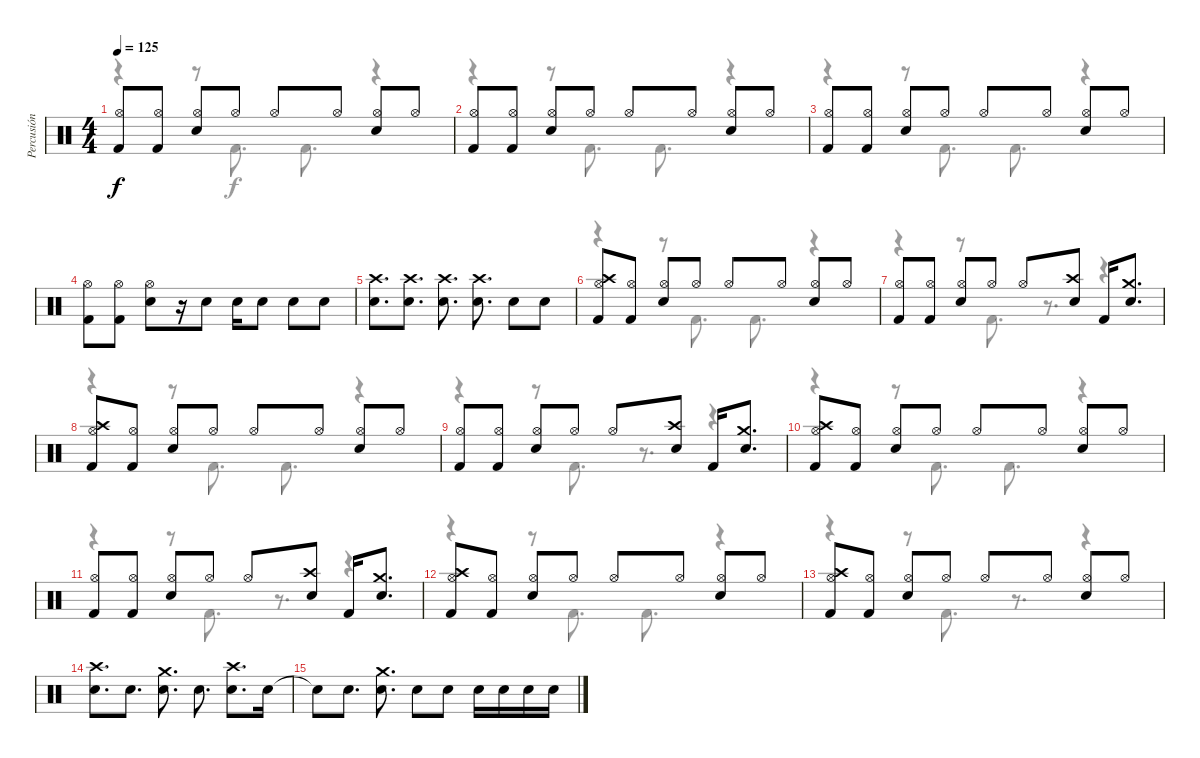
\track ("Percusión" "Percusión") {instrument percussion}
\staff {score}
\articulation defaults
\voice
\ts (4 4)
\tempo 125
\clef neutral
\ks c
("Hi-Hat (open)" "Kick (hit) 2").8{dy f} ("Hi-Hat (open)" "Kick (hit) 2").8 ("Hi-Hat (open)" "Electric Snare (hit)").8 "Hi-Hat (open)".8 "Hi-Hat (open)".8 "Hi-Hat (open)".8 ("Hi-Hat (open)" "Electric Snare (hit)").8 "Hi-Hat (open)".8 |
("Hi-Hat (open)" "Kick (hit) 2").8 ("Hi-Hat (open)" "Kick (hit) 2").8 ("Hi-Hat (open)" "Electric Snare (hit)").8 "Hi-Hat (open)".8 "Hi-Hat (open)".8 "Hi-Hat (open)".8 ("Hi-Hat (open)" "Electric Snare (hit)").8 "Hi-Hat (open)".8 |
("Hi-Hat (open)" "Kick (hit) 2").8 ("Hi-Hat (open)" "Kick (hit) 2").8 ("Hi-Hat (open)" "Electric Snare (hit)").8 "Hi-Hat (open)".8 "Hi-Hat (open)".8 "Hi-Hat (open)".8 ("Hi-Hat (open)" "Electric Snare (hit)").8 "Hi-Hat (open)".8 |
("Hi-Hat (open)" "Kick (hit) 2").8 ("Hi-Hat (open)" "Kick (hit) 2").8 ("Hi-Hat (open)" "Electric Snare (hit)").8 r.16 "Electric Snare (hit)".8 "Electric Snare (hit)".16 "Electric Snare (hit)".8 "Electric Snare (hit)".8 "Electric Snare (hit)".8 |
("Crash high (hit)" "Electric Snare (hit)").8{d} ("Crash high (hit)" "Electric Snare (hit)").8{d} ("Crash high (hit)" "Electric Snare (hit)").8{d} ("Crash high (hit)" "Electric Snare (hit)").8{d} "Electric Snare (hit)".8 "Electric Snare (hit)".8 |
("Hi-Hat (open)" "Kick (hit) 2" "Crash high (hit)").8 ("Hi-Hat (open)" "Kick (hit) 2").8 ("Hi-Hat (open)" "Electric Snare (hit)").8 "Hi-Hat (open)".8 "Hi-Hat (open)".8 "Hi-Hat (open)".8 ("Hi-Hat (open)" "Electric Snare (hit)").8 "Hi-Hat (open)".8 |
("Hi-Hat (open)" "Kick (hit) 2").8 ("Hi-Hat (open)" "Kick (hit) 2").8 ("Hi-Hat (open)" "Electric Snare (hit)").8 "Hi-Hat (open)".8 "Hi-Hat (open)".8 ("Crash high (hit)" "Electric Snare (hit)").8 "Kick (hit) 2".16 ("Crash medium (hit)" "Electric Snare (hit)").8{d} |
("Hi-Hat (open)" "Kick (hit) 2" "Crash high (hit)").8 ("Hi-Hat (open)" "Kick (hit) 2").8 ("Hi-Hat (open)" "Electric Snare (hit)").8 "Hi-Hat (open)".8 "Hi-Hat (open)".8 "Hi-Hat (open)".8 ("Hi-Hat (open)" "Electric Snare (hit)").8 "Hi-Hat (open)".8 |
("Hi-Hat (open)" "Kick (hit) 2").8 ("Hi-Hat (open)" "Kick (hit) 2").8 ("Hi-Hat (open)" "Electric Snare (hit)").8 "Hi-Hat (open)".8 "Hi-Hat (open)".8 ("Crash high (hit)" "Electric Snare (hit)").8 "Kick (hit) 2".16 ("Crash medium (hit)" "Electric Snare (hit)").8{d} |
("Hi-Hat (open)" "Kick (hit) 2" "Crash high (hit)").8 ("Hi-Hat (open)" "Kick (hit) 2").8 ("Hi-Hat (open)" "Electric Snare (hit)").8 "Hi-Hat (open)".8 "Hi-Hat (open)".8 "Hi-Hat (open)".8 ("Hi-Hat (open)" "Electric Snare (hit)").8 "Hi-Hat (open)".8 |
("Hi-Hat (open)" "Kick (hit) 2").8 ("Hi-Hat (open)" "Kick (hit) 2").8 ("Hi-Hat (open)" "Electric Snare (hit)").8 "Hi-Hat (open)".8 "Hi-Hat (open)".8 ("Crash high (hit)" "Electric Snare (hit)").8 "Kick (hit) 2".16 ("Crash medium (hit)" "Electric Snare (hit)").8{d} |
("Hi-Hat (open)" "Kick (hit) 2" "Crash high (hit)").8 ("Hi-Hat (open)" "Kick (hit) 2").8 ("Hi-Hat (open)" "Electric Snare (hit)").8 "Hi-Hat (open)".8 "Hi-Hat (open)".8 "Hi-Hat (open)".8 ("Hi-Hat (open)" "Electric Snare (hit)").8 "Hi-Hat (open)".8 |
("Hi-Hat (open)" "Kick (hit) 2" "Crash high (hit)").8 ("Hi-Hat (open)" "Kick (hit) 2").8 ("Hi-Hat (open)" "Electric Snare (hit)").8 "Hi-Hat (open)".8 "Hi-Hat (open)".8 "Hi-Hat (open)".8 ("Hi-Hat (open)" "Electric Snare (hit)").8 "Hi-Hat (open)".8 |
("Crash high (hit)" "Electric Snare (hit)").8{d} "Electric Snare (hit)".8{d} ("Crash medium (hit)" "Electric Snare (hit)").8{d} "Electric Snare (hit)".8{d} ("Crash high (hit)" "Electric Snare (hit)").8{d} "Electric Snare (hit)".16 |
"Snare (hit)"{t}.8 "Electric Snare (hit)".8{d} ("Crash medium (hit)" "Electric Snare (hit)").8{d} "Electric Snare (hit)".8 "Electric Snare (hit)".8 "Electric Snare (hit)".16 "Electric Snare (hit)".16 "Electric Snare (hit)".16 "Electric Snare (hit)".16 |
\voice
\clef neutral
\ottava regular
\simile none
\ks c
r.4{dy f} r.8 "Kick (hit) 2".8{d} "Kick (hit) 2".8{d} r.4 |
r.4 r.8 "Kick (hit) 2".8{d} "Kick (hit) 2".8{d} r.4 |
r.4 r.8 "Kick (hit) 2".8{d} "Kick (hit) 2".8{d} r.4 |
|
|
r.4 r.8 "Kick (hit) 2".8{d} "Kick (hit) 2".8{d} r.4 |
r.4 r.8 "Kick (hit) 2".8{d} r.8{d} r.4 |
r.4 r.8 "Kick (hit) 2".8{d} "Kick (hit) 2".8{d} r.4 |
r.4 r.8 "Kick (hit) 2".8{d} r.8{d} r.4 |
r.4 r.8 "Kick (hit) 2".8{d} "Kick (hit) 2".8{d} r.4 |
r.4 r.8 "Kick (hit) 2".8{d} r.8{d} r.4 |
r.4 r.8 "Kick (hit) 2".8{d} "Kick (hit) 2".8{d} r.4 |
r.4 r.8 "Kick (hit) 2".8{d} r.8{d} r.4 |
|
|
